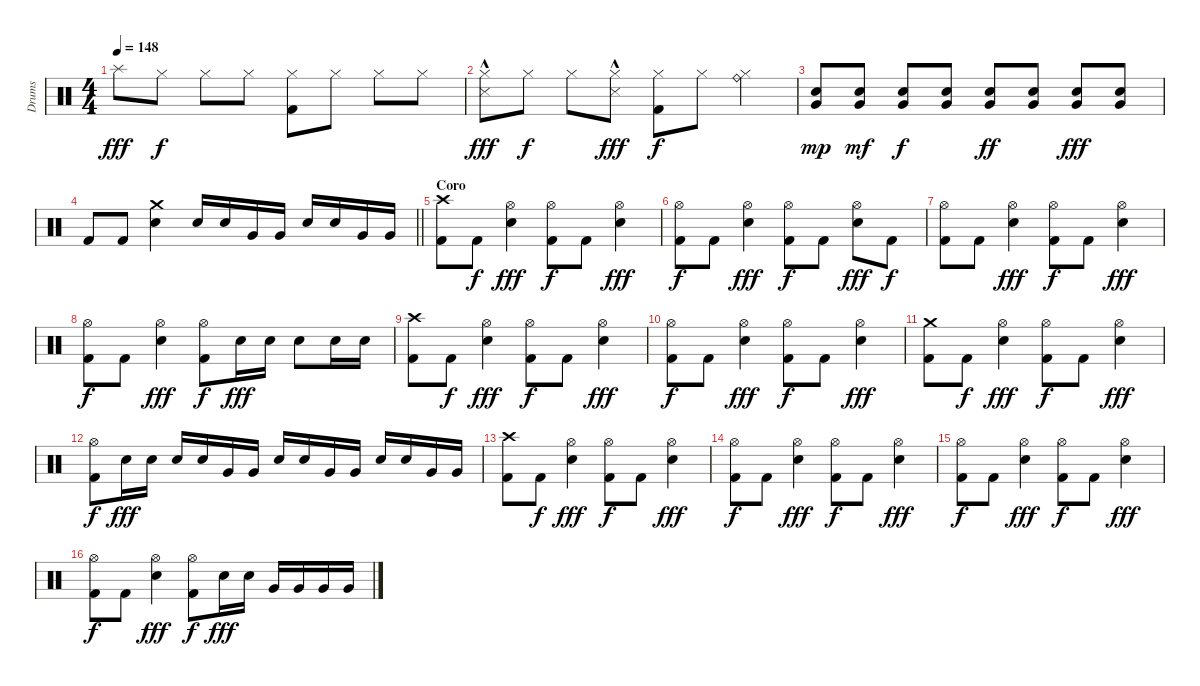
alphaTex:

\track ("Drums" "Drums") {instrument percussion}
\staff {score}
\articulation defaults
\ts (4 4)
\tempo 148
\clef neutral
\ks c "Splash (hit)".8{dy fff} "Hi-Hat (closed)".8{dy f} "Hi-Hat (closed)".8 "Hi-Hat (closed)".8
("Hi-Hat (closed)" "Kick (hit) 2").8 "Hi-Hat (closed)".8 "Hi-Hat (closed)".8 "Hi-Hat (closed)".8 |
("Hi-Hat (closed)" "Snare (side stick) 3"{hac}).8{dy fff} "Hi-Hat (closed)".8{dy f} "Hi-Hat (closed)".8 ("Hi-Hat (closed)" "Snare (side stick) 3"{hac}).8{dy fff} ("Hi-Hat (closed)" "Kick (hit) 2").8{dy f} "Hi-Hat (closed)".8 ("Ride (bell)" "Hi-Hat (closed)").4 |
("Very Low Tom (hit)" "Electric Snare (hit)").8{dy mp} ("Very Low Tom (hit)" "Electric Snare (hit)").8{dy mf} ("Very Low Tom (hit)" "Electric Snare (hit)").8{dy f} ("Very Low Tom (hit)" "Electric Snare (hit)").8 ("Very Low Tom (hit)" "Electric Snare (hit)").8{dy ff} ("Very Low Tom (hit)" "Electric Snare (hit)").8 ("Very Low Tom (hit)" "Electric Snare (hit)").8{dy fff} ("Very Low Tom (hit)" "Electric Snare (hit)").8 |
\barLineRight lightlight "Kick (hit) 2".8 "Kick (hit) 2".8
("Crash medium (hit)" "Electric Snare (hit)").4 "Electric Snare (hit)".16 "Electric Snare (hit)".16 "Very Low Tom (hit)".16 "Very Low Tom (hit)".16 "Electric Snare (hit)".16 "Electric Snare (hit)".16 "Very Low Tom (hit)".16 "Very Low Tom (hit)".16 |
\section ("" "Coro")
("Crash high (hit)" "Kick (hit) 2").8 "Kick (hit) 2".8{dy f} ("Hi-Hat (open)" "Electric Snare (hit)").4{dy fff} ("Hi-Hat (open)" "Kick (hit) 2").8{dy f} "Kick (hit) 2".8 ("Hi-Hat (open)" "Electric Snare (hit)").4{dy fff} |
("Hi-Hat (open)" "Kick (hit) 2").8{dy f} "Kick (hit) 2".8 ("Hi-Hat (open)" "Electric Snare (hit)").4{dy fff} ("Hi-Hat (open)" "Kick (hit) 2").8{dy f} "Kick (hit) 2".8 ("Hi-Hat (open)" "Electric Snare (hit)").8{dy fff} "Kick (hit) 2".8{dy f} |
("Hi-Hat (open)" "Kick (hit) 2").8 "Kick (hit) 2".8 ("Hi-Hat (open)" "Electric Snare (hit)").4{dy fff} ("Hi-Hat (open)" "Kick (hit) 2").8{dy f} "Kick (hit) 2".8 ("Hi-Hat (open)" "Electric Snare (hit)").4{dy fff} |
("Hi-Hat (open)" "Kick (hit) 2").8{dy f} "Kick (hit) 2".8 ("Hi-Hat (open)" "Electric Snare (hit)").4{dy fff} ("Hi-Hat (open)" "Kick (hit) 2").8{dy f} "Electric Snare (hit)".16{dy fff} "Electric Snare (hit)".16 "Electric Snare (hit)".8 "Electric Snare (hit)".16 "Electric Snare (hit)".16 |
("Crash high (hit)" "Kick (hit) 2").8 "Kick (hit) 2".8{dy f} ("Hi-Hat (open)" "Electric Snare (hit)").4{dy fff} ("Hi-Hat (open)" "Kick (hit) 2").8{dy f} "Kick (hit) 2".8 ("Hi-Hat (open)" "Electric Snare (hit)").4{dy fff} |
("Hi-Hat (open)" "Kick (hit) 2").8{dy f} "Kick (hit) 2".8 ("Hi-Hat (open)" "Electric Snare (hit)").4{dy fff} ("Hi-Hat (open)" "Kick (hit) 2").8{dy f} "Kick (hit) 2".8 ("Hi-Hat (open)" "Electric Snare (hit)").4{dy fff} |
("Crash medium (hit)" "Kick (hit) 2").8 "Kick (hit) 2".8{dy f} ("Hi-Hat (open)" "Electric Snare (hit)").4{dy fff} ("Hi-Hat (open)" "Kick (hit) 2").8{dy f} "Kick (hit) 2".8 ("Hi-Hat (open)" "Electric Snare (hit)").4{dy fff} |
("Hi-Hat (open)" "Kick (hit) 2").8{dy f} "Electric Snare (hit)".16{dy fff} "Electric Snare (hit)".16 "Electric Snare (hit)".16 "Electric Snare (hit)".16 "Very Low Tom (hit)".16 "Very Low Tom (hit)".16 "Electric Snare (hit)".16 "Electric Snare (hit)".16 "Very Low Tom (hit)".16 "Very Low Tom (hit)".16 "Electric Snare (hit)".16 "Electric Snare (hit)".16 "Very Low Tom (hit)".16 "Very Low Tom (hit)".16 |
("Crash high (hit)" "Kick (hit) 2").8 "Kick (hit) 2".8{dy f} ("Hi-Hat (open)" "Electric Snare (hit)").4{dy fff} ("Hi-Hat (open)" "Kick (hit) 2").8{dy f} "Kick (hit) 2".8 ("Hi-Hat (open)" "Electric Snare (hit)").4{dy fff} |
("Hi-Hat (open)" "Kick (hit) 2").8{dy f} "Kick (hit) 2".8 ("Hi-Hat (open)" "Electric Snare (hit)").4{dy fff} ("Hi-Hat (open)" "Kick (hit) 2").8{dy f} "Kick (hit) 2".8 ("Hi-Hat (open)" "Electric Snare (hit)").4{dy fff} |
("Hi-Hat (open)" "Kick (hit) 2").8{dy f} "Kick (hit) 2".8 ("Hi-Hat (open)" "Electric Snare (hit)").4{dy fff} ("Hi-Hat (open)" "Kick (hit) 2").8{dy f} "Kick (hit) 2".8 ("Hi-Hat (open)" "Electric Snare (hit)").4{dy fff} |
("Hi-Hat (open)" "Kick (hit) 2").8{dy f} "Kick (hit) 2".8 ("Hi-Hat (open)" "Electric Snare (hit)").4{dy fff} ("Hi-Hat (open)" "Kick (hit) 2").8{dy f} "Electric Snare (hit)".16{dy fff} "Electric Snare (hit)".16 "Very Low Tom (hit)".16 "Very Low Tom (hit)".16 "Very Low Tom (hit)".16 "Very Low Tom (hit)".16
